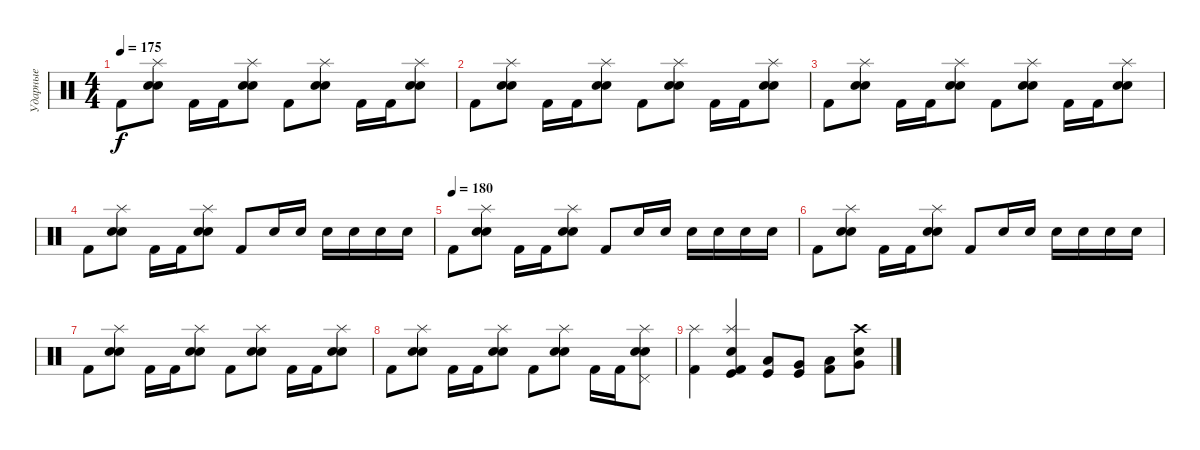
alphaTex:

\track ("Ударные" "Ударные") {instrument percussion}
\staff {score}
\articulation defaults
\ts (4 4)
\tempo 175
\clef neutral
\ks c "Kick (hit) 2".8{dy f}
("Splash (hit)" "Electric Snare (hit)" "Snare (hit) 2").8 "Kick (hit) 2".16 "Kick (hit) 2".16 ("Splash (hit)" "Electric Snare (hit)" "Snare (hit) 2").8 "Kick (hit) 2".8 ("Splash (hit)" "Electric Snare (hit)" "Snare (hit) 2").8 "Kick (hit) 2".16 "Kick (hit) 2".16 ("Splash (hit)" "Electric Snare (hit)" "Snare (hit) 2").8 |
"Kick (hit) 2".8 ("Splash (hit)" "Electric Snare (hit)" "Snare (hit) 2").8 "Kick (hit) 2".16 "Kick (hit) 2".16 ("Splash (hit)" "Electric Snare (hit)" "Snare (hit) 2").8 "Kick (hit) 2".8 ("Splash (hit)" "Electric Snare (hit)" "Snare (hit) 2").8 "Kick (hit) 2".16 "Kick (hit) 2".16 ("Splash (hit)" "Electric Snare (hit)" "Snare (hit) 2").8 |
"Kick (hit) 2".8 ("Splash (hit)" "Electric Snare (hit)" "Snare (hit) 2").8 "Kick (hit) 2".16 "Kick (hit) 2".16 ("Splash (hit)" "Electric Snare (hit)" "Snare (hit) 2").8 "Kick (hit) 2".8 ("Splash (hit)" "Electric Snare (hit)" "Snare (hit) 2").8 "Kick (hit) 2".16 "Kick (hit) 2".16 ("Splash (hit)" "Electric Snare (hit)" "Snare (hit) 2").8 |
"Kick (hit) 2".8 ("Splash (hit)" "Electric Snare (hit)" "Snare (hit) 2").8 "Kick (hit) 2".16 "Kick (hit) 2".16 ("Splash (hit)" "Electric Snare (hit)" "Snare (hit) 2").8 "Kick (hit) 2".8 "Electric Snare (hit)".16 "Electric Snare (hit)".16 "Electric Snare (hit)".16 "Electric Snare (hit)".16 "Electric Snare (hit)".16 "Electric Snare (hit)".16 |
\tempo (180)
"Kick (hit) 2".8 ("Splash (hit)" "Electric Snare (hit)" "Snare (hit) 2").8 "Kick (hit) 2".16 "Kick (hit) 2".16 ("Splash (hit)" "Electric Snare (hit)" "Snare (hit) 2").8 "Kick (hit) 2".8 "Electric Snare (hit)".16 "Electric Snare (hit)".16 "Electric Snare (hit)".16 "Electric Snare (hit)".16 "Electric Snare (hit)".16 "Electric Snare (hit)".16 |
"Kick (hit) 2".8 ("Splash (hit)" "Electric Snare (hit)" "Snare (hit) 2").8 "Kick (hit) 2".16 "Kick (hit) 2".16 ("Splash (hit)" "Electric Snare (hit)" "Snare (hit) 2").8 "Kick (hit) 2".8 "Electric Snare (hit)".16 "Electric Snare (hit)".16 "Electric Snare (hit)".16 "Electric Snare (hit)".16 "Electric Snare (hit)".16 "Electric Snare (hit)".16 |
"Kick (hit) 2".8 ("Splash (hit)" "Electric Snare (hit)" "Snare (hit) 2").8 "Kick (hit) 2".16 "Kick (hit) 2".16 ("Splash (hit)" "Electric Snare (hit)" "Snare (hit) 2").8 "Kick (hit) 2".8 ("Splash (hit)" "Electric Snare (hit)" "Snare (hit) 2").8 "Kick (hit) 2".16 "Kick (hit) 2".16 ("Splash (hit)" "Electric Snare (hit)" "Snare (hit) 2").8 |
"Kick (hit) 2".8 ("Splash (hit)" "Electric Snare (hit)" "Snare (hit) 2").8 "Kick (hit) 2".16 "Kick (hit) 2".16 ("Splash (hit)" "Electric Snare (hit)" "Snare (hit) 2").8 "Kick (hit) 2".8 ("Splash (hit)" "Electric Snare (hit)" "Snare (hit) 2").8 "Kick (hit) 2".16 "Kick (hit) 2".16 ("Splash (hit)" "Pedal Hi-Hat (hit)" "Electric Snare (hit)" "Snare (hit) 2").8 |
("Splash (hit)" "Kick (hit) 2").4 ("Splash (hit)" "Snare (hit) 2" "Kick (hit)" "Kick (hit) 2").4 ("Low Tom (hit)" "Kick (hit)").8 ("Very Low Tom (hit)" "Kick (hit)").8 ("Low Floor Tom (hit)" "Kick (hit) 2").8 ("Crash high (hit)" "Very Low Tom (hit)" "Snare (hit) 2").8
